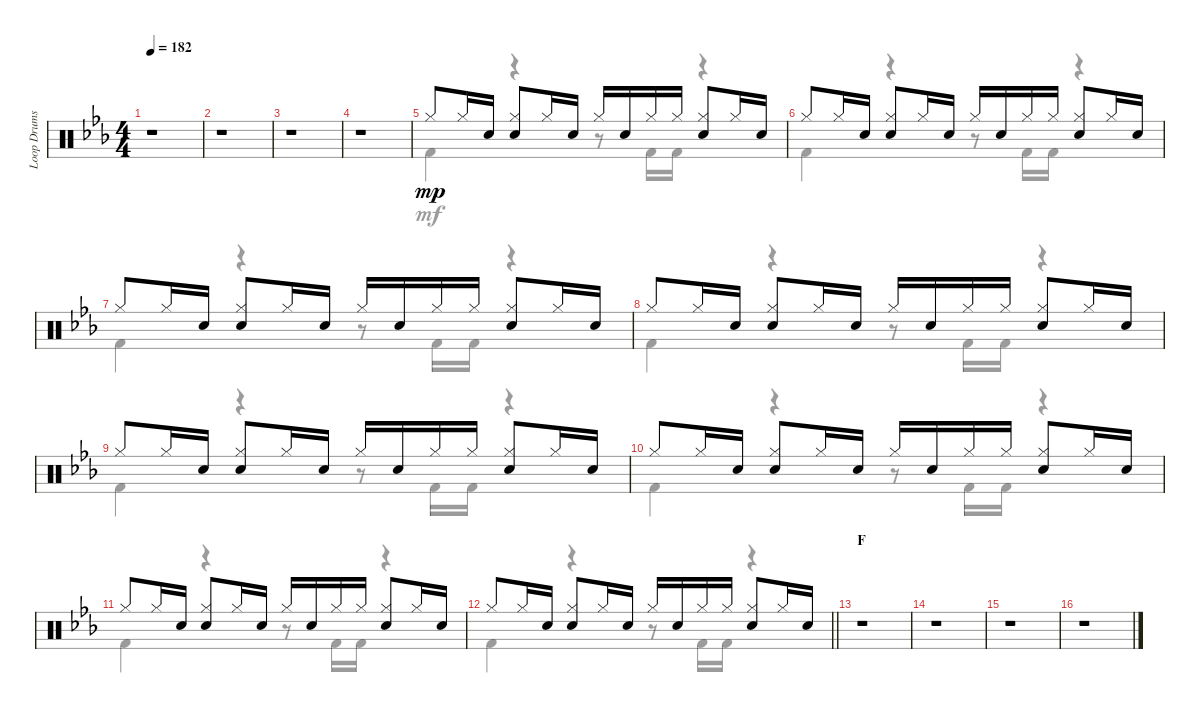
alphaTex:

\track ("Loop Drums" "Loop Drums") {instrument percussion}
\staff {score}
\articulation defaults
\voice
\ts (4 4)
\tempo 182
\clef neutral
\ks eb
r.1{dy mp} |
r.1 |
r.1 |
r.1 |
"Hi-Hat (closed)".8 "Hi-Hat (closed)".16 "Electric Snare (hit)".16 ("Hi-Hat (closed)" "Electric Snare (hit)").8 "Hi-Hat (closed)".16 "Electric Snare (hit)".16 "Hi-Hat (closed)".16 "Electric Snare (hit)".16 "Hi-Hat (closed)".16 "Hi-Hat (closed)".16 ("Hi-Hat (closed)" "Electric Snare (hit)").8 "Hi-Hat (closed)".16 "Electric Snare (hit)".16 |
"Hi-Hat (closed)".8 "Hi-Hat (closed)".16 "Electric Snare (hit)".16 ("Hi-Hat (closed)" "Electric Snare (hit)").8 "Hi-Hat (closed)".16 "Electric Snare (hit)".16 "Hi-Hat (closed)".16 "Electric Snare (hit)".16 "Hi-Hat (closed)".16 "Hi-Hat (closed)".16 ("Hi-Hat (closed)" "Electric Snare (hit)").8 "Hi-Hat (closed)".16 "Electric Snare (hit)".16 |
"Hi-Hat (closed)".8 "Hi-Hat (closed)".16 "Electric Snare (hit)".16 ("Hi-Hat (closed)" "Electric Snare (hit)").8 "Hi-Hat (closed)".16 "Electric Snare (hit)".16 "Hi-Hat (closed)".16 "Electric Snare (hit)".16 "Hi-Hat (closed)".16 "Hi-Hat (closed)".16 ("Hi-Hat (closed)" "Electric Snare (hit)").8 "Hi-Hat (closed)".16 "Electric Snare (hit)".16 |
"Hi-Hat (closed)".8 "Hi-Hat (closed)".16 "Electric Snare (hit)".16 ("Hi-Hat (closed)" "Electric Snare (hit)").8 "Hi-Hat (closed)".16 "Electric Snare (hit)".16 "Hi-Hat (closed)".16 "Electric Snare (hit)".16 "Hi-Hat (closed)".16 "Hi-Hat (closed)".16 ("Hi-Hat (closed)" "Electric Snare (hit)").8 "Hi-Hat (closed)".16 "Electric Snare (hit)".16 |
"Hi-Hat (closed)".8 "Hi-Hat (closed)".16 "Electric Snare (hit)".16 ("Hi-Hat (closed)" "Electric Snare (hit)").8 "Hi-Hat (closed)".16 "Electric Snare (hit)".16 "Hi-Hat (closed)".16 "Electric Snare (hit)".16 "Hi-Hat (closed)".16 "Hi-Hat (closed)".16 ("Hi-Hat (closed)" "Electric Snare (hit)").8 "Hi-Hat (closed)".16 "Electric Snare (hit)".16 |
"Hi-Hat (closed)".8 "Hi-Hat (closed)".16 "Electric Snare (hit)".16 ("Hi-Hat (closed)" "Electric Snare (hit)").8 "Hi-Hat (closed)".16 "Electric Snare (hit)".16 "Hi-Hat (closed)".16 "Electric Snare (hit)".16 "Hi-Hat (closed)".16 "Hi-Hat (closed)".16 ("Hi-Hat (closed)" "Electric Snare (hit)").8 "Hi-Hat (closed)".16 "Electric Snare (hit)".16 |
"Hi-Hat (closed)".8 "Hi-Hat (closed)".16 "Electric Snare (hit)".16 ("Hi-Hat (closed)" "Electric Snare (hit)").8 "Hi-Hat (closed)".16 "Electric Snare (hit)".16 "Hi-Hat (closed)".16 "Electric Snare (hit)".16 "Hi-Hat (closed)".16 "Hi-Hat (closed)".16 ("Hi-Hat (closed)" "Electric Snare (hit)").8 "Hi-Hat (closed)".16 "Electric Snare (hit)".16 |
\barLineRight lightlight "Hi-Hat (closed)".8 "Hi-Hat (closed)".16 "Electric Snare (hit)".16
("Hi-Hat (closed)" "Electric Snare (hit)").8 "Hi-Hat (closed)".16 "Electric Snare (hit)".16 "Hi-Hat (closed)".16 "Electric Snare (hit)".16 "Hi-Hat (closed)".16 "Hi-Hat (closed)".16 ("Hi-Hat (closed)" "Electric Snare (hit)").8 "Hi-Hat (closed)".16 "Electric Snare (hit)".16 |
\section ("" "F")
r.1 |
r.1 |
r.1 |
r.1
\voice
\clef neutral
\ottava regular
\simile none
\ks eb
r.1{dy mf} |
r.1 |
r.1 |
r.1 |
"Kick (hit) 2".4 r.4 r.8 "Kick (hit) 2".16 "Kick (hit) 2".16 r.4 |
"Kick (hit) 2".4 r.4 r.8 "Kick (hit) 2".16 "Kick (hit) 2".16 r.4 |
"Kick (hit) 2".4 r.4 r.8 "Kick (hit) 2".16 "Kick (hit) 2".16 r.4 |
"Kick (hit) 2".4 r.4 r.8 "Kick (hit) 2".16 "Kick (hit) 2".16 r.4 |
"Kick (hit) 2".4 r.4 r.8 "Kick (hit) 2".16 "Kick (hit) 2".16 r.4 |
"Kick (hit) 2".4 r.4 r.8 "Kick (hit) 2".16 "Kick (hit) 2".16 r.4 |
"Kick (hit) 2".4 r.4 r.8 "Kick (hit) 2".16 "Kick (hit) 2".16 r.4 |
\barLineRight lightlight "Kick (hit) 2".4
r.4 r.8 "Kick (hit) 2".16 "Kick (hit) 2".16 r.4 |
r.1 |
r.1 |
r.1 |
r.1
